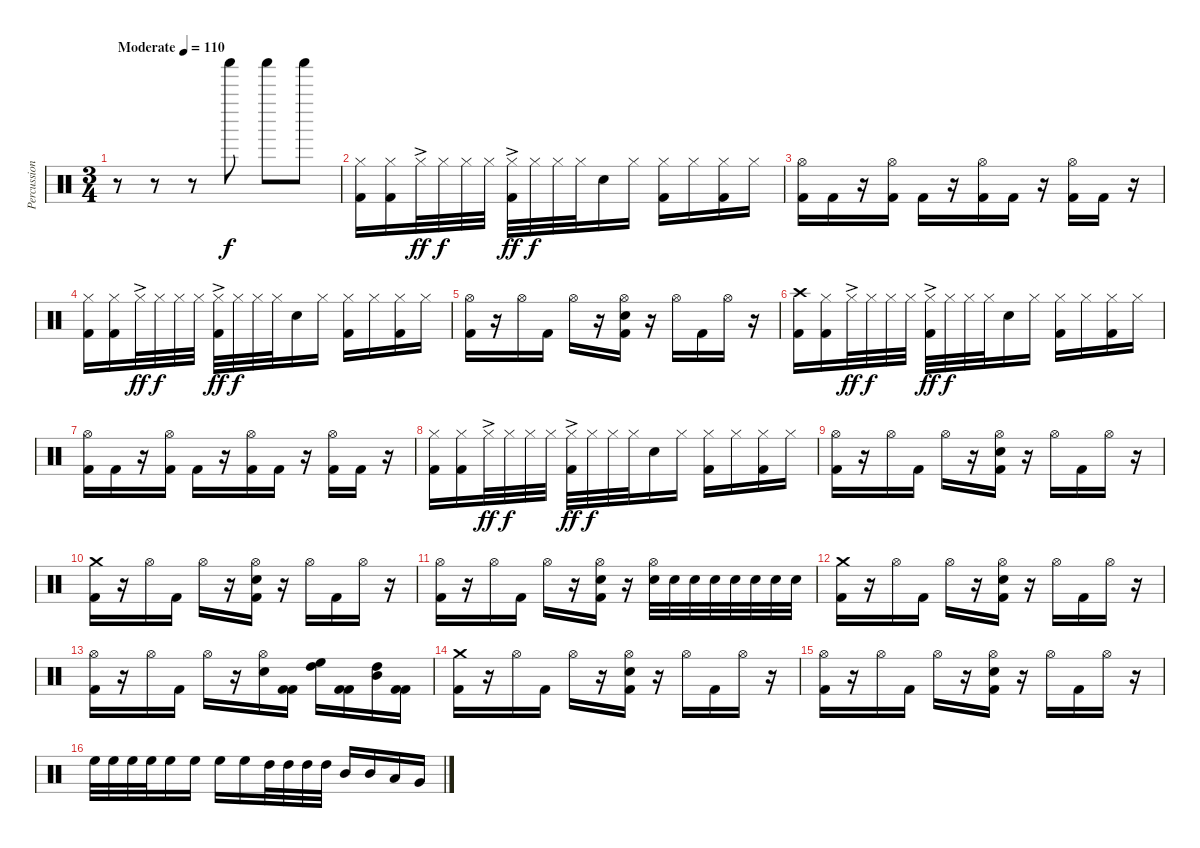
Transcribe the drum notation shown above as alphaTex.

\track ("Percussion" "Percussion") {instrument percussion}
\staff {score}
\articulation defaults
\ts (3 4)
\tempo (110 "Moderate")
\clef neutral
\ks c
r.8{dy f} r.8 r.8 "Shaker (hit)".8 "Shaker (hit)".8 "Shaker (hit)".8 |
("Hi-Hat (closed)" "Kick (hit) 2").16 ("Hi-Hat (closed)" "Kick (hit) 2").16 "Hi-Hat (closed)"{ac}.32{dy ff} "Hi-Hat (closed)".32{dy f} "Hi-Hat (closed)".32 "Hi-Hat (closed)".32 ("Hi-Hat (closed)"{ac} "Kick (hit) 2").32{dy ff} "Hi-Hat (closed)".32{dy f} "Hi-Hat (closed)".32 "Hi-Hat (closed)".32 "Snare (hit) 2".16 "Hi-Hat (closed)".16 ("Hi-Hat (closed)" "Kick (hit) 2").16 "Hi-Hat (closed)".16 ("Hi-Hat (closed)" "Kick (hit) 2").16 "Hi-Hat (closed)".16 |
("Hi-Hat (open)" "Kick (hit) 2").16 "Kick (hit) 2".16 r.16 ("Hi-Hat (open)" "Kick (hit) 2").16 "Kick (hit) 2".16 r.16 ("Hi-Hat (open)" "Kick (hit) 2").16 "Kick (hit) 2".16 r.16 ("Hi-Hat (open)" "Kick (hit) 2").16 "Kick (hit) 2".16 r.16 |
("Hi-Hat (closed)" "Kick (hit) 2").16 ("Hi-Hat (closed)" "Kick (hit) 2").16 "Hi-Hat (closed)"{ac}.32{dy ff} "Hi-Hat (closed)".32{dy f} "Hi-Hat (closed)".32 "Hi-Hat (closed)".32 ("Hi-Hat (closed)"{ac} "Kick (hit) 2").32{dy ff} "Hi-Hat (closed)".32{dy f} "Hi-Hat (closed)".32 "Hi-Hat (closed)".32 "Snare (hit) 2".16 "Hi-Hat (closed)".16 ("Hi-Hat (closed)" "Kick (hit) 2").16 "Hi-Hat (closed)".16 ("Hi-Hat (closed)" "Kick (hit) 2").16 "Hi-Hat (closed)".16 |
("Hi-Hat (open)" "Kick (hit) 2").16 r.16 "Hi-Hat (open)".16 "Kick (hit) 2".16 "Hi-Hat (open)".16 r.16 ("Hi-Hat (open)" "Snare (hit) 2" "Kick (hit) 2").16 r.16 "Hi-Hat (open)".16 "Kick (hit) 2".16 "Hi-Hat (open)".16 r.16 |
("Crash high (hit)" "Kick (hit) 2").16 ("Hi-Hat (closed)" "Kick (hit) 2").16 "Hi-Hat (closed)"{ac}.32{dy ff} "Hi-Hat (closed)".32{dy f} "Hi-Hat (closed)".32 "Hi-Hat (closed)".32 ("Hi-Hat (closed)"{ac} "Kick (hit) 2").32{dy ff} "Hi-Hat (closed)".32{dy f} "Hi-Hat (closed)".32 "Hi-Hat (closed)".32 "Snare (hit) 2".16 "Hi-Hat (closed)".16 ("Hi-Hat (closed)" "Kick (hit) 2").16 "Hi-Hat (closed)".16 ("Hi-Hat (closed)" "Kick (hit) 2").16 "Hi-Hat (closed)".16 |
("Hi-Hat (open)" "Kick (hit) 2").16 "Kick (hit) 2".16 r.16 ("Hi-Hat (open)" "Kick (hit) 2").16 "Kick (hit) 2".16 r.16 ("Hi-Hat (open)" "Kick (hit) 2").16 "Kick (hit) 2".16 r.16 ("Hi-Hat (open)" "Kick (hit) 2").16 "Kick (hit) 2".16 r.16 |
("Hi-Hat (closed)" "Kick (hit) 2").16 ("Hi-Hat (closed)" "Kick (hit) 2").16 "Hi-Hat (closed)"{ac}.32{dy ff} "Hi-Hat (closed)".32{dy f} "Hi-Hat (closed)".32 "Hi-Hat (closed)".32 ("Hi-Hat (closed)"{ac} "Kick (hit) 2").32{dy ff} "Hi-Hat (closed)".32{dy f} "Hi-Hat (closed)".32 "Hi-Hat (closed)".32 "Snare (hit) 2".16 "Hi-Hat (closed)".16 ("Hi-Hat (closed)" "Kick (hit) 2").16 "Hi-Hat (closed)".16 ("Hi-Hat (closed)" "Kick (hit) 2").16 "Hi-Hat (closed)".16 |
("Hi-Hat (open)" "Kick (hit) 2").16 r.16 "Hi-Hat (open)".16 "Kick (hit) 2".16 "Hi-Hat (open)".16 r.16 ("Hi-Hat (open)" "Snare (hit) 2" "Kick (hit) 2").16 r.16 "Hi-Hat (open)".16 "Kick (hit) 2".16 "Hi-Hat (open)".16 r.16 |
("Crash medium (hit)" "Kick (hit) 2").16 r.16 "Hi-Hat (open)".16 "Kick (hit) 2".16 "Hi-Hat (open)".16 r.16 ("Hi-Hat (open)" "Snare (hit) 2" "Kick (hit) 2").16 r.16 "Hi-Hat (open)".16 "Kick (hit) 2".16 "Hi-Hat (open)".16 r.16 |
("Hi-Hat (open)" "Kick (hit) 2").16 r.16 "Hi-Hat (open)".16 "Kick (hit) 2".16 "Hi-Hat (open)".16 r.16 ("Hi-Hat (open)" "Snare (hit) 2" "Kick (hit) 2").16 r.16 ("Hi-Hat (open)" "Snare (hit) 2").32 "Snare (hit) 2".32 "Snare (hit) 2".32 "Snare (hit) 2".32 "Snare (hit) 2".32 "Snare (hit) 2".32 "Snare (hit) 2".32 "Snare (hit) 2".32 |
("Crash medium (hit)" "Kick (hit) 2").16 r.16 "Hi-Hat (open)".16 "Kick (hit) 2".16 "Hi-Hat (open)".16 r.16 ("Hi-Hat (open)" "Snare (hit) 2" "Kick (hit) 2").16 r.16 "Hi-Hat (open)".16 "Kick (hit) 2".16 "Hi-Hat (open)".16 r.16 |
("Hi-Hat (open)" "Kick (hit) 2").16 r.16 "Hi-Hat (open)".16 "Kick (hit) 2".16 "Hi-Hat (open)".16 r.16 ("Hi-Hat (open)" "Snare (hit) 2").16 ("Kick (hit) 2" "Kick (hit) 2").16 ("High Floor Tom (hit)" "High Tom (hit)").16 ("Kick (hit) 2" "Kick (hit) 2").16 ("High Tom (hit)" "Mid Tom (hit)").16 ("Kick (hit) 2" "Kick (hit) 2").16 |
("Crash medium (hit)" "Kick (hit) 2").16 r.16 "Hi-Hat (open)".16 "Kick (hit) 2".16 "Hi-Hat (open)".16 r.16 ("Hi-Hat (open)" "Snare (hit) 2" "Kick (hit) 2").16 r.16 "Hi-Hat (open)".16 "Kick (hit) 2".16 "Hi-Hat (open)".16 r.16 |
("Hi-Hat (open)" "Kick (hit) 2").16 r.16 "Hi-Hat (open)".16 "Kick (hit) 2".16 "Hi-Hat (open)".16 r.16 ("Hi-Hat (open)" "Snare (hit) 2" "Kick (hit) 2").16 r.16 "Hi-Hat (open)".16 "Kick (hit) 2".16 "Hi-Hat (open)".16 r.16 |
"High Floor Tom (hit)".32 "High Floor Tom (hit)".32 "High Floor Tom (hit)".32 "High Floor Tom (hit)".32 "High Floor Tom (hit)".16 "High Floor Tom (hit)".16 "High Floor Tom (hit)".16 "High Floor Tom (hit)".16 "High Tom (hit)".32 "High Tom (hit)".32 "High Tom (hit)".32 "High Tom (hit)".32 "Mid Tom (hit)".16 "Mid Tom (hit)".16 "Low Tom (hit)".16 "Very Low Tom (hit)".16
